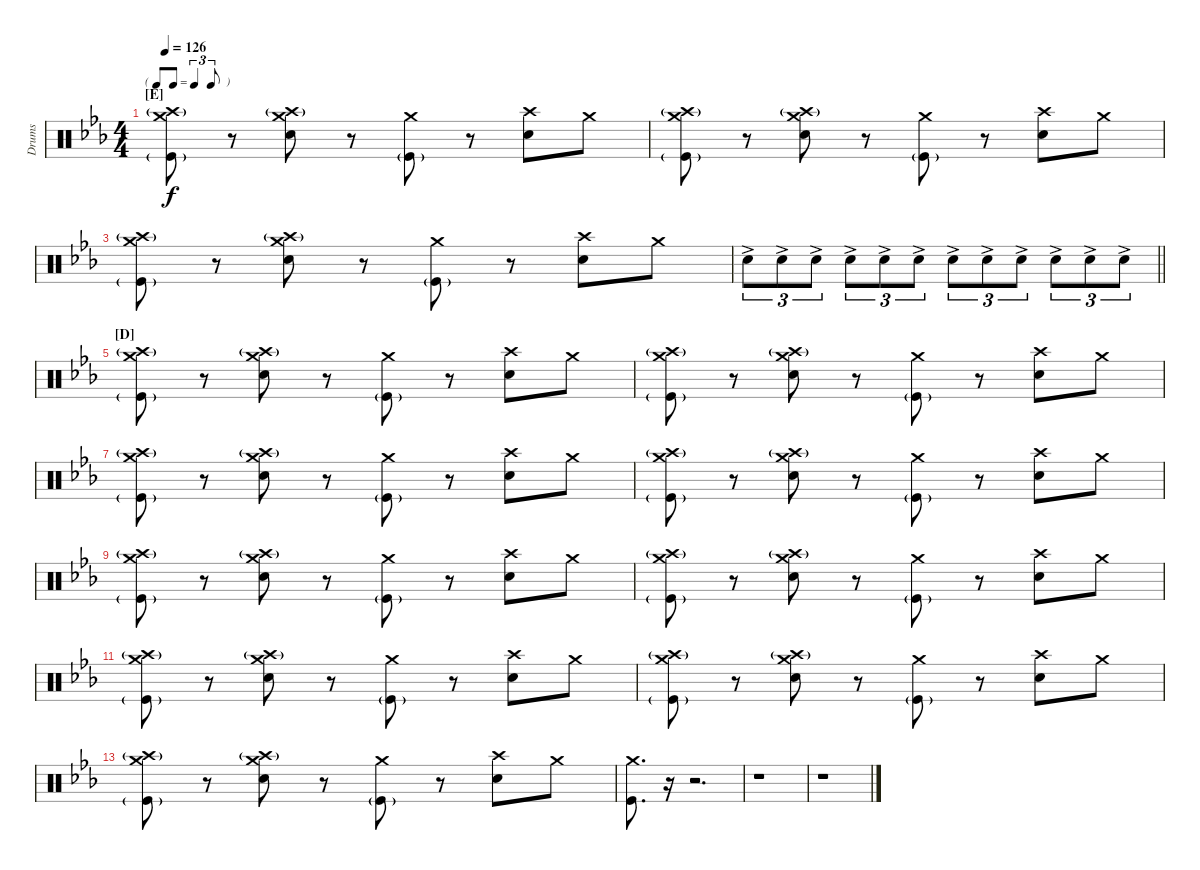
\bracketExtendMode nobrackets
\otherSystemsTrackNameOrientation horizontal
\defaultBarNumberDisplay FirstOfSystem
\track ("Drumkit" "Drums") {instrument percussion}
\staff {score}
\articulation defaults
\ts (4 4)
\tf triplet8th
\section ("E" "")
\tempo 126
\clef neutral
\ks cminor
("Kick (hit)"{g} "Crash medium (hit)" "Crash high (hit)"{g}).8{dy f} r.8 ("Snare (hit) 2" "Crash medium (hit)" "Crash high (hit)"{g}).8 r.8 ("Kick (hit)"{g} "Crash medium (hit)").8 r.8 ("Snare (hit) 2" "Crash high (hit)").8 "Crash medium (hit)".8 |
("Kick (hit)"{g} "Crash medium (hit)" "Crash high (hit)"{g}).8 r.8 ("Snare (hit) 2" "Crash medium (hit)" "Crash high (hit)"{g}).8 r.8 ("Kick (hit)"{g} "Crash medium (hit)").8 r.8 ("Snare (hit) 2" "Crash high (hit)").8 "Crash medium (hit)".8 |
("Kick (hit)"{g} "Crash medium (hit)" "Crash high (hit)"{g}).8 r.8 ("Snare (hit) 2" "Crash medium (hit)" "Crash high (hit)"{g}).8 r.8 ("Kick (hit)"{g} "Crash medium (hit)").8 r.8 ("Snare (hit) 2" "Crash high (hit)").8 "Crash medium (hit)".8 |
\barLineRight lightlight "Snare (hit) 2"{ac}.8{tu (3 2)} "Snare (hit) 2"{ac}.8{tu (3 2)} "Snare (hit) 2"{ac}.8{tu (3 2)} "Snare (hit) 2"{ac}.8{tu (3 2)} "Snare (hit) 2"{ac}.8{tu (3 2)} "Snare (hit) 2"{ac}.8{tu (3 2)} "Snare (hit) 2"{ac}.8{tu (3 2)} "Snare (hit) 2"{ac}.8{tu (3 2)} "Snare (hit) 2"{ac}.8{tu (3 2)} "Snare (hit) 2"{ac}.8{tu (3 2)} "Snare (hit) 2"{ac}.8{tu (3 2)} "Snare (hit) 2"{ac}.8{tu (3 2)}
|
\section ("D" "")
("Kick (hit)"{g} "Crash medium (hit)" "Crash high (hit)"{g}).8 r.8 ("Snare (hit) 2" "Crash medium (hit)" "Crash high (hit)"{g}).8 r.8 ("Kick (hit)"{g} "Crash medium (hit)").8 r.8 ("Snare (hit) 2" "Crash high (hit)").8 "Crash medium (hit)".8 |
("Kick (hit)"{g} "Crash medium (hit)" "Crash high (hit)"{g}).8 r.8 ("Snare (hit) 2" "Crash medium (hit)" "Crash high (hit)"{g}).8 r.8 ("Kick (hit)"{g} "Crash medium (hit)").8 r.8 ("Snare (hit) 2" "Crash high (hit)").8 "Crash medium (hit)".8 |
("Kick (hit)"{g} "Crash medium (hit)" "Crash high (hit)"{g}).8 r.8 ("Snare (hit) 2" "Crash medium (hit)" "Crash high (hit)"{g}).8 r.8 ("Kick (hit)"{g} "Crash medium (hit)").8 r.8 ("Snare (hit) 2" "Crash high (hit)").8 "Crash medium (hit)".8 |
("Kick (hit)"{g} "Crash medium (hit)" "Crash high (hit)"{g}).8 r.8 ("Snare (hit) 2" "Crash medium (hit)" "Crash high (hit)"{g}).8 r.8 ("Kick (hit)"{g} "Crash medium (hit)").8 r.8 ("Snare (hit) 2" "Crash high (hit)").8 "Crash medium (hit)".8 |
("Kick (hit)"{g} "Crash medium (hit)" "Crash high (hit)"{g}).8 r.8 ("Snare (hit) 2" "Crash medium (hit)" "Crash high (hit)"{g}).8 r.8 ("Kick (hit)"{g} "Crash medium (hit)").8 r.8 ("Snare (hit) 2" "Crash high (hit)").8 "Crash medium (hit)".8 |
("Kick (hit)"{g} "Crash medium (hit)" "Crash high (hit)"{g}).8 r.8 ("Snare (hit) 2" "Crash medium (hit)" "Crash high (hit)"{g}).8 r.8 ("Kick (hit)"{g} "Crash medium (hit)").8 r.8 ("Snare (hit) 2" "Crash high (hit)").8 "Crash medium (hit)".8 |
("Kick (hit)"{g} "Crash medium (hit)" "Crash high (hit)"{g}).8 r.8 ("Snare (hit) 2" "Crash medium (hit)" "Crash high (hit)"{g}).8 r.8 ("Kick (hit)"{g} "Crash medium (hit)").8 r.8 ("Snare (hit) 2" "Crash high (hit)").8 "Crash medium (hit)".8 |
("Kick (hit)"{g} "Crash medium (hit)" "Crash high (hit)"{g}).8 r.8 ("Snare (hit) 2" "Crash medium (hit)" "Crash high (hit)"{g}).8 r.8 ("Kick (hit)"{g} "Crash medium (hit)").8 r.8 ("Snare (hit) 2" "Crash high (hit)").8 "Crash medium (hit)".8 |
("Kick (hit)"{g} "Crash medium (hit)" "Crash high (hit)"{g}).8 r.8 ("Snare (hit) 2" "Crash medium (hit)" "Crash high (hit)"{g}).8 r.8 ("Kick (hit)"{g} "Crash medium (hit)").8 r.8 ("Snare (hit) 2" "Crash high (hit)").8 "Crash medium (hit)".8 |
("Kick (hit)" "Crash medium (hit)").8{d} r.16 r.2{d} |
r.1 |
r.1
